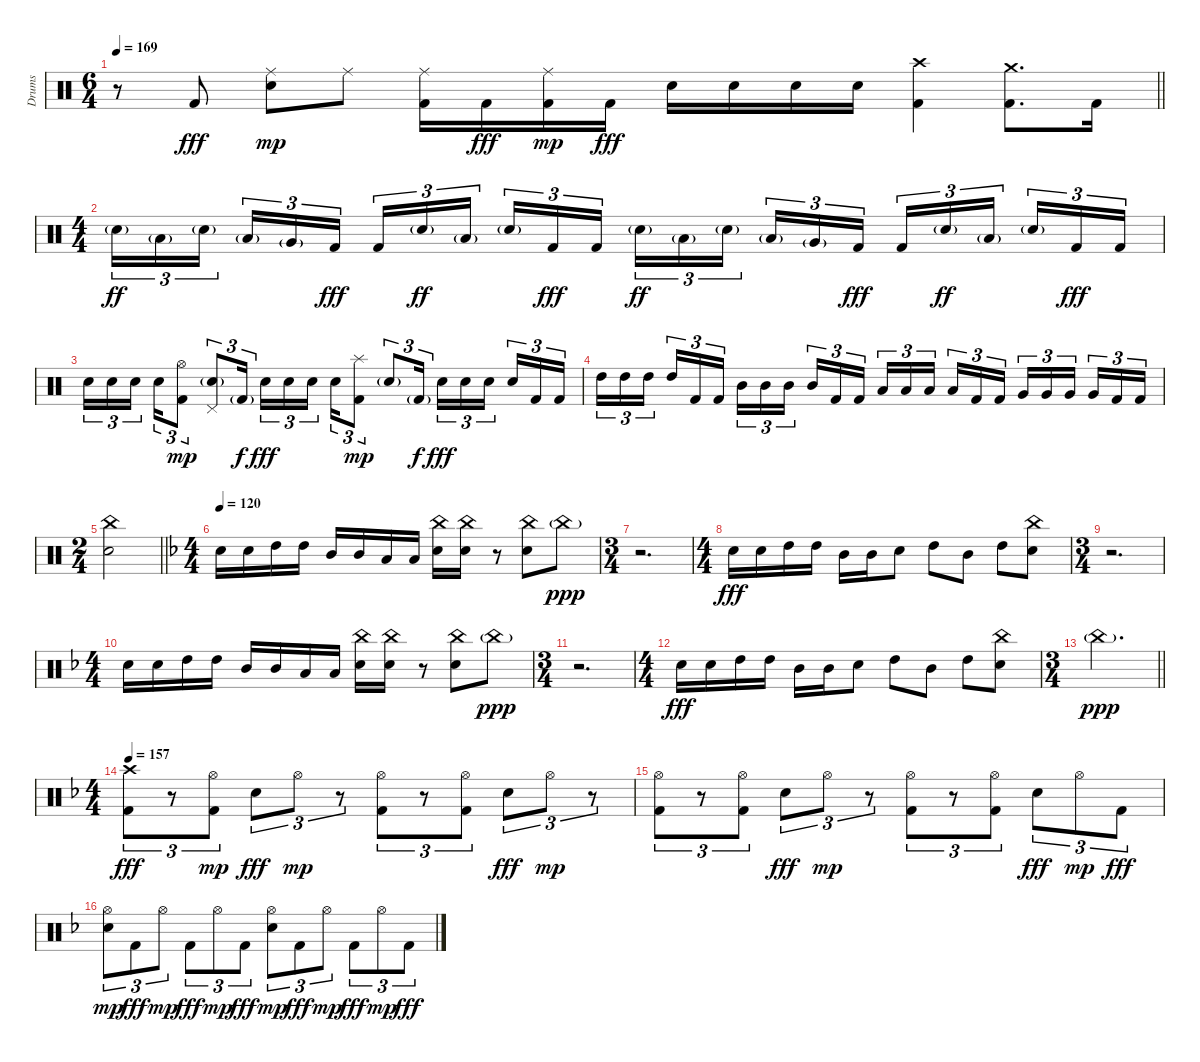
\track ("Drums" "Drums") {instrument percussion}
\staff {score}
\articulation defaults
\ts (6 4)
\tempo 169
\clef neutral
\barLineRight lightlight
\ks c
r.8{dy fff} "Kick (hit) 2".8 ("Electric Snare (hit)" "Ride (middle)").8{dy mp} "Ride (middle)".8 ("Kick (hit) 2" "Ride (middle)").16 "Kick (hit) 2".16{dy fff} ("Kick (hit) 2" "Ride (middle)").16{dy mp} "Kick (hit) 2".16{dy fff} "Electric Snare (hit)".16 "Electric Snare (hit)".16 "Electric Snare (hit)".16 "Electric Snare (hit)".16 ("Kick (hit) 2" "Crash high (hit)").4 ("Kick (hit) 2" "Crash medium (hit)").8{d} "Kick (hit) 2".16 |
\ts (4 4)
"Electric Snare (hit)"{g}.16{tu (3 2) dy ff} "Low Tom (hit)"{g}.16{tu (3 2)} "Electric Snare (hit)"{g}.16{tu (3 2) beam splitsecondary} "Low Tom (hit)"{g}.16{tu (3 2)} "Very Low Tom (hit)"{g}.16{tu (3 2)} "Kick (hit) 2".16{tu (3 2) dy fff} "Kick (hit) 2".16{tu (3 2)} "Electric Snare (hit)"{g}.16{tu (3 2) dy ff} "Low Tom (hit)"{g}.16{tu (3 2) beam splitsecondary} "Electric Snare (hit)"{g}.16{tu (3 2)} "Kick (hit) 2".16{tu (3 2) dy fff} "Kick (hit) 2".16{tu (3 2)} "Electric Snare (hit)"{g}.16{tu (3 2) dy ff} "Low Tom (hit)"{g}.16{tu (3 2)} "Electric Snare (hit)"{g}.16{tu (3 2) beam splitsecondary} "Low Tom (hit)"{g}.16{tu (3 2)} "Very Low Tom (hit)"{g}.16{tu (3 2)} "Kick (hit) 2".16{tu (3 2) dy fff} "Kick (hit) 2".16{tu (3 2)} "Electric Snare (hit)"{g}.16{tu (3 2) dy ff} "Low Tom (hit)"{g}.16{tu (3 2) beam splitsecondary} "Electric Snare (hit)"{g}.16{tu (3 2)} "Kick (hit) 2".16{tu (3 2) dy fff} "Kick (hit) 2".16{tu (3 2)} |
"Electric Snare (hit)".16{tu (3 2)} "Electric Snare (hit)".16{tu (3 2)} "Electric Snare (hit)".16{tu (3 2) beam splitsecondary} "Electric Snare (hit)".16{tu (3 2)} ("Kick (hit) 2" "Hi-Hat (open)").8{tu (3 2) dy mp} ("Electric Snare (hit)"{g} "Pedal Hi-Hat (hit)").8{tu (3 2)} "Kick (hit) 2"{g}.16{tu (3 2) dy f beam splitsecondary} "Electric Snare (hit)".16{tu (3 2) dy fff} "Electric Snare (hit)".16{tu (3 2)} "Electric Snare (hit)".16{tu (3 2)} "Electric Snare (hit)".16{tu (3 2)} ("Kick (hit) 2" "Splash (hit)").8{tu (3 2) dy mp} "Electric Snare (hit)"{g}.8{tu (3 2)} "Kick (hit) 2"{g}.16{tu (3 2) dy f} "Electric Snare (hit)".16{tu (3 2) dy fff} "Electric Snare (hit)".16{tu (3 2)} "Electric Snare (hit)".16{tu (3 2) beam splitsecondary} "Electric Snare (hit)".16{tu (3 2)} "Kick (hit) 2".16{tu (3 2)} "Kick (hit) 2".16{tu (3 2)} |
"High Tom (hit)".16{tu (3 2)} "High Tom (hit)".16{tu (3 2)} "High Tom (hit)".16{tu (3 2) beam splitsecondary} "High Tom (hit)".16{tu (3 2)} "Kick (hit) 2".16{tu (3 2)} "Kick (hit) 2".16{tu (3 2)} "Mid Tom (hit)".16{tu (3 2)} "Mid Tom (hit)".16{tu (3 2)} "Mid Tom (hit)".16{tu (3 2) beam splitsecondary} "Mid Tom (hit)".16{tu (3 2)} "Kick (hit) 2".16{tu (3 2)} "Kick (hit) 2".16{tu (3 2)} "Low Tom (hit)".16{tu (3 2)} "Low Tom (hit)".16{tu (3 2)} "Low Tom (hit)".16{tu (3 2) beam splitsecondary} "Low Tom (hit)".16{tu (3 2)} "Kick (hit) 2".16{tu (3 2)} "Kick (hit) 2".16{tu (3 2)} "Very Low Tom (hit)".16{tu (3 2)} "Very Low Tom (hit)".16{tu (3 2)} "Very Low Tom (hit)".16{tu (3 2) beam splitsecondary} "Very Low Tom (hit)".16{tu (3 2)} "Kick (hit) 2".16{tu (3 2)} "Kick (hit) 2".16{tu (3 2)} |
\ts (2 4)
\barLineRight lightlight
("Electric Snare (hit)" "China (hit)").2 |
\ts (4 4)
\tempo 120
\ks f "Electric Snare (hit)".16 "Electric Snare (hit)".16 "High Tom (hit)".16 "High Tom (hit)".16 "Mid Tom (hit)".16 "Mid Tom (hit)".16 "Low Tom (hit)".16 "Low Tom (hit)".16
("Electric Snare (hit)" "China (hit)").16 ("Electric Snare (hit)" "China (hit)").16 r.8 ("Electric Snare (hit)" "China (hit)").8 "China (hit)"{g}.8{dy ppp} |
\ts (3 4)
r.2{d} |
\ts (4 4)
"Electric Snare (hit)".16{dy fff} "Electric Snare (hit)".16 "High Tom (hit)".16 "High Tom (hit)".16 "Mid Tom (hit)".16 "Mid Tom (hit)".16 "Electric Snare (hit)".8 "High Tom (hit)".8 "Mid Tom (hit)".8 "High Tom (hit)".8 ("Electric Snare (hit)" "China (hit)").8 |
\ts (3 4)
r.2{d} |
\ts (4 4)
"Electric Snare (hit)".16 "Electric Snare (hit)".16 "High Tom (hit)".16 "High Tom (hit)".16 "Mid Tom (hit)".16 "Mid Tom (hit)".16 "Low Tom (hit)".16 "Low Tom (hit)".16 ("Electric Snare (hit)" "China (hit)").16 ("Electric Snare (hit)" "China (hit)").16 r.8 ("Electric Snare (hit)" "China (hit)").8 "China (hit)"{g}.8{dy ppp} |
\ts (3 4)
r.2{d} |
\ts (4 4)
"Electric Snare (hit)".16{dy fff} "Electric Snare (hit)".16 "High Tom (hit)".16 "High Tom (hit)".16 "Mid Tom (hit)".16 "Mid Tom (hit)".16 "Electric Snare (hit)".8 "High Tom (hit)".8 "Mid Tom (hit)".8 "High Tom (hit)".8 ("Electric Snare (hit)" "China (hit)").8 |
\ts (3 4)
\barLineRight lightlight "China (hit)"{g}.2{d dy ppp}
|
\ts (4 4)
\tempo 157
("Kick (hit) 2" "Crash high (hit)").8{tu (3 2) dy fff} r.8{tu (3 2)} ("Kick (hit) 2" "Hi-Hat (open)").8{tu (3 2) dy mp} "Electric Snare (hit)".8{tu (3 2) dy fff} "Hi-Hat (open)".8{tu (3 2) dy mp} r.8{tu (3 2)} ("Kick (hit) 2" "Hi-Hat (open)").8{tu (3 2)} r.8{tu (3 2)} ("Kick (hit) 2" "Hi-Hat (open)").8{tu (3 2)} "Electric Snare (hit)".8{tu (3 2) dy fff} "Hi-Hat (open)".8{tu (3 2) dy mp} r.8{tu (3 2)} |
("Kick (hit) 2" "Hi-Hat (open)").8{tu (3 2)} r.8{tu (3 2)} ("Kick (hit) 2" "Hi-Hat (open)").8{tu (3 2)} "Electric Snare (hit)".8{tu (3 2) dy fff} "Hi-Hat (open)".8{tu (3 2) dy mp} r.8{tu (3 2)} ("Kick (hit) 2" "Hi-Hat (open)").8{tu (3 2)} r.8{tu (3 2)} ("Kick (hit) 2" "Hi-Hat (open)").8{tu (3 2)} "Electric Snare (hit)".8{tu (3 2) dy fff} "Hi-Hat (open)".8{tu (3 2) dy mp} "Kick (hit) 2".8{tu (3 2) dy fff} |
("Electric Snare (hit)" "Hi-Hat (open)").8{tu (3 2) dy mp} "Kick (hit) 2".8{tu (3 2) dy fff} "Hi-Hat (open)".8{tu (3 2) dy mp} "Kick (hit) 2".8{tu (3 2) dy fff} "Hi-Hat (open)".8{tu (3 2) dy mp} "Kick (hit) 2".8{tu (3 2) dy fff} ("Electric Snare (hit)" "Hi-Hat (open)").8{tu (3 2) dy mp} "Kick (hit) 2".8{tu (3 2) dy fff} "Hi-Hat (open)".8{tu (3 2) dy mp} "Kick (hit) 2".8{tu (3 2) dy fff} "Hi-Hat (open)".8{tu (3 2) dy mp} "Kick (hit) 2".8{tu (3 2) dy fff}
